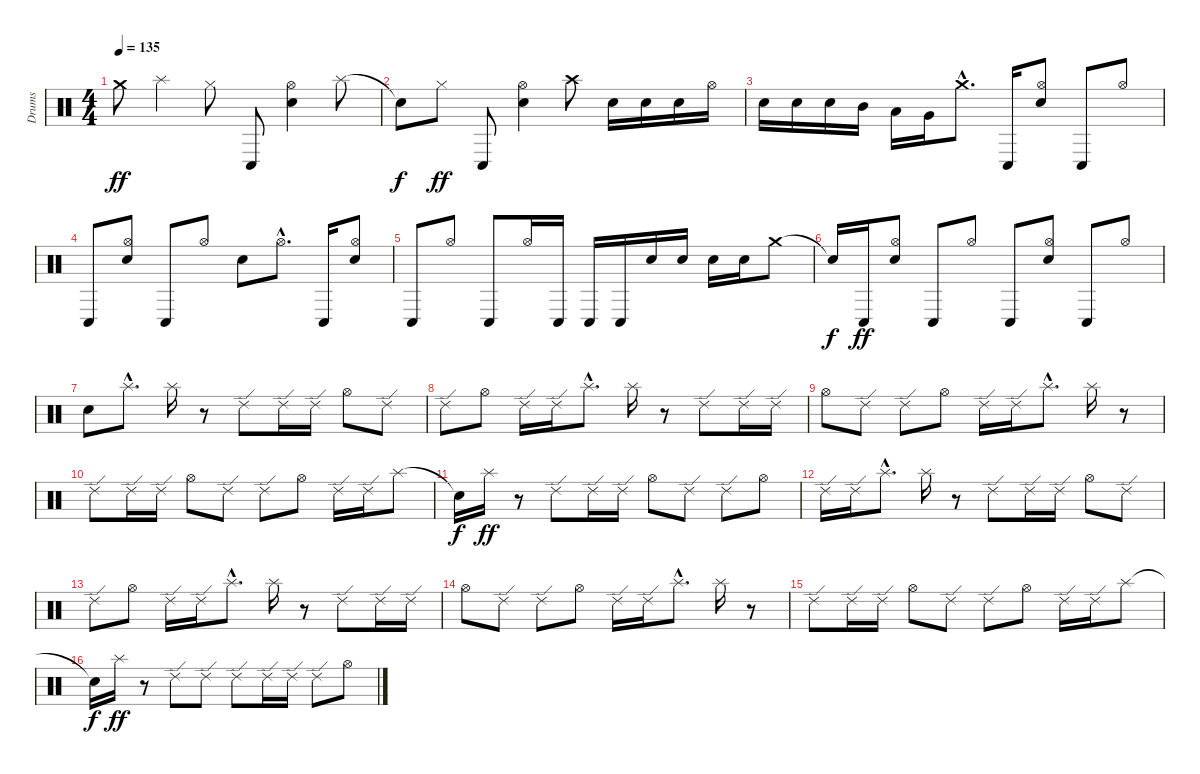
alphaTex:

\track ("Drums" "Drums") {instrument percussion}
\staff {score}
\articulation defaults
\ts (4 4)
\tempo 135
\clef neutral
\ks c "Crash medium (hit)".8{dy ff} "Splash (hit)".4 "Hi-Hat (closed)".8 "Conga low (hit)".8
("Electric Snare (hit)" "Hi-Hat (open)").4 "Splash (hit)".8 |
"Snare (hit)"{t}.8{dy f} "Hi-Hat (closed)".8{dy ff} "Conga low (hit)".8 ("Electric Snare (hit)" "Hi-Hat (open)").4 "Crash high (hit)".8 "Electric Snare (hit)".16 "Electric Snare (hit)".16 "Electric Snare (hit)".16 "Hi-Hat (open)".16 |
"Electric Snare (hit)".16 "Electric Snare (hit)".16 "Electric Snare (hit)".16 "Mid Tom (hit)".16 "Low Tom (hit)".16 "Very Low Tom (hit)".16 "Crash medium (hit)"{hac}.8{d} "Conga low (hit)".16 ("Electric Snare (hit)" "Hi-Hat (open)").8 "Conga low (hit)".8 "Hi-Hat (open)".8 |
"Conga low (hit)".8 ("Electric Snare (hit)" "Hi-Hat (open)").8 "Conga low (hit)".8 "Hi-Hat (open)".8 "Electric Snare (hit)".8 "Hi-Hat (open)"{hac}.8{d} "Conga low (hit)".16 ("Electric Snare (hit)" "Hi-Hat (open)").8 |
"Conga low (hit)".8 "Hi-Hat (open)".8 "Conga low (hit)".8 "Hi-Hat (open)".16 "Conga low (hit)".16 "Conga low (hit)".16 "Conga low (hit)".16 "Electric Snare (hit)".16 "Electric Snare (hit)".16 "Electric Snare (hit)".16 "Electric Snare (hit)".16 "Crash medium (hit)".8 |
"Snare (hit)"{t}.16{dy f} "Conga low (hit)".16{dy ff} ("Electric Snare (hit)" "Hi-Hat (open)").8 "Conga low (hit)".8 "Hi-Hat (open)".8 "Conga low (hit)".8 ("Electric Snare (hit)" "Hi-Hat (open)").8 "Conga low (hit)".8 "Hi-Hat (open)".8 |
"Electric Snare (hit)".8 "Splash (hit)"{hac}.8{d} "Splash (hit)".16 r.8 "Ride (edge) 2".8 "Ride (edge) 2".16 "Ride (edge) 2".16 "Hi-Hat (open)".8 "Ride (edge) 2".8 |
"Ride (edge) 2".8 "Hi-Hat (open)".8 "Ride (edge) 2".16 "Ride (edge) 2".16 "Splash (hit)"{hac}.8{d} "Splash (hit)".16 r.8 "Ride (edge) 2".8 "Ride (edge) 2".16 "Ride (edge) 2".16 |
"Hi-Hat (open)".8 "Ride (edge) 2".8 "Ride (edge) 2".8 "Hi-Hat (open)".8 "Ride (edge) 2".16 "Ride (edge) 2".16 "Splash (hit)"{hac}.8{d} "Splash (hit)".16 r.8 |
"Ride (edge) 2".8 "Ride (edge) 2".16 "Ride (edge) 2".16 "Hi-Hat (open)".8 "Ride (edge) 2".8 "Ride (edge) 2".8 "Hi-Hat (open)".8 "Ride (edge) 2".16 "Ride (edge) 2".16 "Splash (hit)".8 |
"Snare (hit)"{t}.16{dy f} "Splash (hit)".16{dy ff} r.8 "Ride (edge) 2".8 "Ride (edge) 2".16 "Ride (edge) 2".16 "Hi-Hat (open)".8 "Ride (edge) 2".8 "Ride (edge) 2".8 "Hi-Hat (open)".8 |
"Ride (edge) 2".16 "Ride (edge) 2".16 "Splash (hit)"{hac}.8{d} "Splash (hit)".16 r.8 "Ride (edge) 2".8 "Ride (edge) 2".16 "Ride (edge) 2".16 "Hi-Hat (open)".8 "Ride (edge) 2".8 |
"Ride (edge) 2".8 "Hi-Hat (open)".8 "Ride (edge) 2".16 "Ride (edge) 2".16 "Splash (hit)"{hac}.8{d} "Splash (hit)".16 r.8 "Ride (edge) 2".8 "Ride (edge) 2".16 "Ride (edge) 2".16 |
"Hi-Hat (open)".8 "Ride (edge) 2".8 "Ride (edge) 2".8 "Hi-Hat (open)".8 "Ride (edge) 2".16 "Ride (edge) 2".16 "Splash (hit)"{hac}.8{d} "Splash (hit)".16 r.8 |
"Ride (edge) 2".8 "Ride (edge) 2".16 "Ride (edge) 2".16 "Hi-Hat (open)".8 "Ride (edge) 2".8 "Ride (edge) 2".8 "Hi-Hat (open)".8 "Ride (edge) 2".16 "Ride (edge) 2".16 "Splash (hit)".8 |
"Snare (hit)"{t}.16{dy f} "Splash (hit)".16{dy ff} r.8 "Ride (edge) 2".8 "Ride (edge) 2".8 "Ride (edge) 2".8 "Ride (edge) 2".16 "Ride (edge) 2".16 "Ride (edge) 2".8 "Hi-Hat (open)".8
